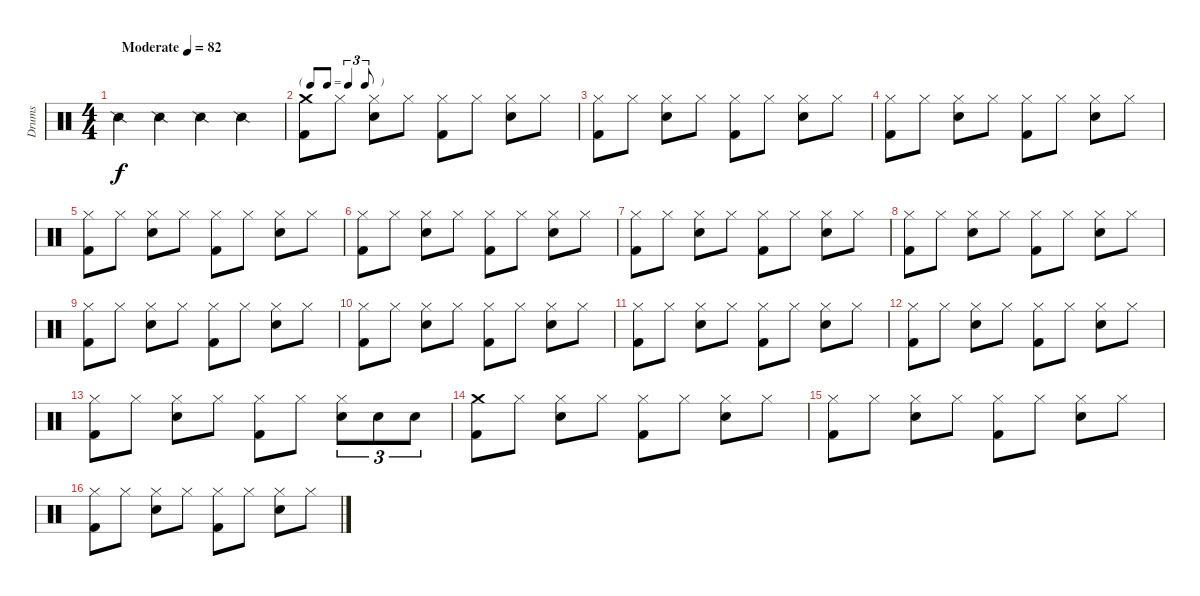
\track ("Drums" "Drums") {instrument percussion}
\staff {score}
\articulation defaults
\ts (4 4)
\tempo (82 "Moderate")
\clef neutral
\ks c "Snare (side stick) 2".4{dy f} "Snare (side stick) 2".4 "Snare (side stick) 2".4 "Snare (side stick) 2".4
|
\tf triplet8th
("Crash medium (hit)" "Kick (hit) 2").8 "Hi-Hat (closed)".8 ("Hi-Hat (closed)" "Snare (hit) 2").8 "Hi-Hat (closed)".8 ("Hi-Hat (closed)" "Kick (hit) 2").8 "Hi-Hat (closed)".8 ("Hi-Hat (closed)" "Snare (hit) 2").8 "Hi-Hat (closed)".8 |
("Hi-Hat (closed)" "Kick (hit) 2").8 "Hi-Hat (closed)".8 ("Hi-Hat (closed)" "Snare (hit) 2").8 "Hi-Hat (closed)".8 ("Hi-Hat (closed)" "Kick (hit) 2").8 "Hi-Hat (closed)".8 ("Hi-Hat (closed)" "Snare (hit) 2").8 "Hi-Hat (closed)".8 |
("Hi-Hat (closed)" "Kick (hit) 2").8 "Hi-Hat (closed)".8 ("Hi-Hat (closed)" "Snare (hit) 2").8 "Hi-Hat (closed)".8 ("Hi-Hat (closed)" "Kick (hit) 2").8 "Hi-Hat (closed)".8 ("Hi-Hat (closed)" "Snare (hit) 2").8 "Hi-Hat (closed)".8 |
("Hi-Hat (closed)" "Kick (hit) 2").8 "Hi-Hat (closed)".8 ("Hi-Hat (closed)" "Snare (hit) 2").8 "Hi-Hat (closed)".8 ("Hi-Hat (closed)" "Kick (hit) 2").8 "Hi-Hat (closed)".8 ("Hi-Hat (closed)" "Snare (hit) 2").8 "Hi-Hat (closed)".8 |
("Hi-Hat (closed)" "Kick (hit) 2").8 "Hi-Hat (closed)".8 ("Hi-Hat (closed)" "Snare (hit) 2").8 "Hi-Hat (closed)".8 ("Hi-Hat (closed)" "Kick (hit) 2").8 "Hi-Hat (closed)".8 ("Hi-Hat (closed)" "Snare (hit) 2").8 "Hi-Hat (closed)".8 |
("Hi-Hat (closed)" "Kick (hit) 2").8 "Hi-Hat (closed)".8 ("Hi-Hat (closed)" "Snare (hit) 2").8 "Hi-Hat (closed)".8 ("Hi-Hat (closed)" "Kick (hit) 2").8 "Hi-Hat (closed)".8 ("Hi-Hat (closed)" "Snare (hit) 2").8 "Hi-Hat (closed)".8 |
("Hi-Hat (closed)" "Kick (hit) 2").8 "Hi-Hat (closed)".8 ("Hi-Hat (closed)" "Snare (hit) 2").8 "Hi-Hat (closed)".8 ("Hi-Hat (closed)" "Kick (hit) 2").8 "Hi-Hat (closed)".8 ("Hi-Hat (closed)" "Snare (hit) 2").8 "Hi-Hat (closed)".8 |
("Hi-Hat (closed)" "Kick (hit) 2").8 "Hi-Hat (closed)".8 ("Hi-Hat (closed)" "Snare (hit) 2").8 "Hi-Hat (closed)".8 ("Hi-Hat (closed)" "Kick (hit) 2").8 "Hi-Hat (closed)".8 ("Hi-Hat (closed)" "Snare (hit) 2").8 "Hi-Hat (closed)".8 |
("Hi-Hat (closed)" "Kick (hit) 2").8 "Hi-Hat (closed)".8 ("Hi-Hat (closed)" "Snare (hit) 2").8 "Hi-Hat (closed)".8 ("Hi-Hat (closed)" "Kick (hit) 2").8 "Hi-Hat (closed)".8 ("Hi-Hat (closed)" "Snare (hit) 2").8 "Hi-Hat (closed)".8 |
("Hi-Hat (closed)" "Kick (hit) 2").8 "Hi-Hat (closed)".8 ("Hi-Hat (closed)" "Snare (hit) 2").8 "Hi-Hat (closed)".8 ("Hi-Hat (closed)" "Kick (hit) 2").8 "Hi-Hat (closed)".8 ("Hi-Hat (closed)" "Snare (hit) 2").8 "Hi-Hat (closed)".8 |
("Hi-Hat (closed)" "Kick (hit) 2").8 "Hi-Hat (closed)".8 ("Hi-Hat (closed)" "Snare (hit) 2").8 "Hi-Hat (closed)".8 ("Hi-Hat (closed)" "Kick (hit) 2").8 "Hi-Hat (closed)".8 ("Hi-Hat (closed)" "Snare (hit) 2").8 "Hi-Hat (closed)".8 |
("Hi-Hat (closed)" "Kick (hit) 2").8 "Hi-Hat (closed)".8 ("Hi-Hat (closed)" "Snare (hit) 2").8 "Hi-Hat (closed)".8 ("Hi-Hat (closed)" "Kick (hit) 2").8 "Hi-Hat (closed)".8 ("Hi-Hat (closed)" "Snare (hit) 2").8{tu (3 2)} "Snare (hit) 2".8{tu (3 2)} "Snare (hit) 2".8{tu (3 2)} |
("Crash medium (hit)" "Kick (hit) 2").8 "Hi-Hat (closed)".8 ("Hi-Hat (closed)" "Snare (hit) 2").8 "Hi-Hat (closed)".8 ("Hi-Hat (closed)" "Kick (hit) 2").8 "Hi-Hat (closed)".8 ("Hi-Hat (closed)" "Snare (hit) 2").8 "Hi-Hat (closed)".8 |
("Hi-Hat (closed)" "Kick (hit) 2").8 "Hi-Hat (closed)".8 ("Hi-Hat (closed)" "Snare (hit) 2").8 "Hi-Hat (closed)".8 ("Hi-Hat (closed)" "Kick (hit) 2").8 "Hi-Hat (closed)".8 ("Hi-Hat (closed)" "Snare (hit) 2").8 "Hi-Hat (closed)".8 |
("Hi-Hat (closed)" "Kick (hit) 2").8 "Hi-Hat (closed)".8 ("Hi-Hat (closed)" "Snare (hit) 2").8 "Hi-Hat (closed)".8 ("Hi-Hat (closed)" "Kick (hit) 2").8 "Hi-Hat (closed)".8 ("Hi-Hat (closed)" "Snare (hit) 2").8 "Hi-Hat (closed)".8
